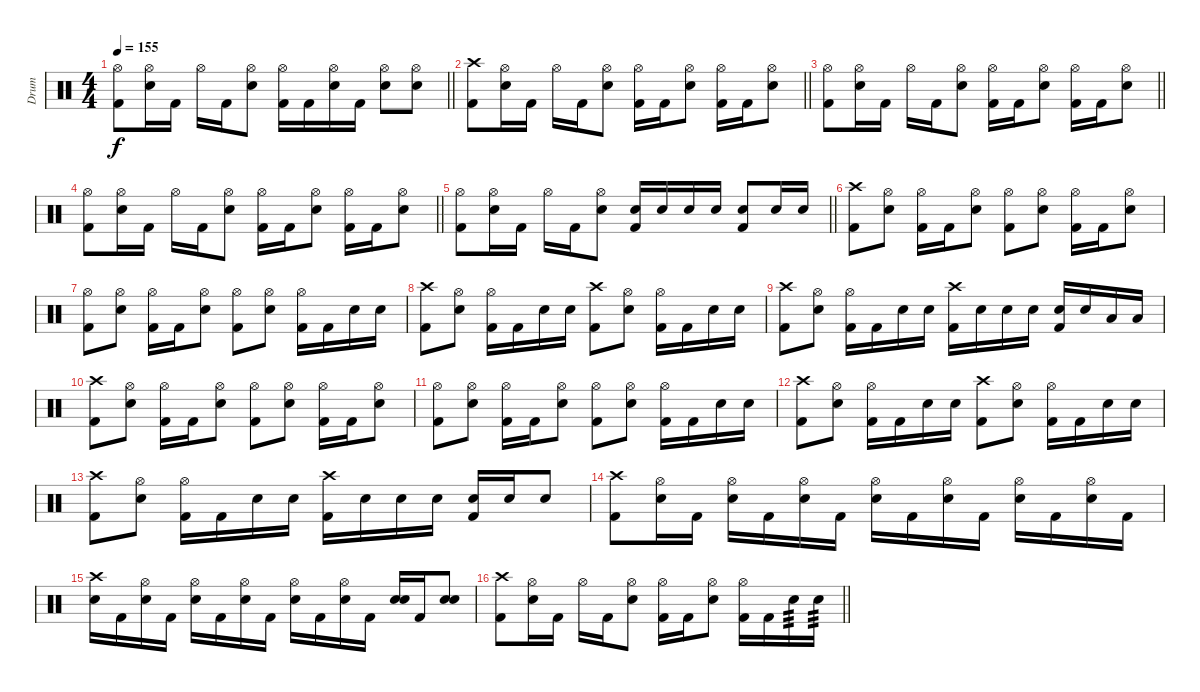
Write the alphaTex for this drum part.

\track ("Drum" "Drum") {solo instrument percussion}
\staff {score}
\articulation defaults
\ts (4 4)
\tempo 155
\clef neutral
\barLineRight lightlight
\ks c
("Hi-Hat (open)" "Kick (hit) 2").8{dy f} ("Hi-Hat (open)" "Electric Snare (hit)").16 "Kick (hit) 2".16 "Hi-Hat (open)".16 "Kick (hit) 2".16 ("Hi-Hat (open)" "Electric Snare (hit)").8 ("Kick (hit) 2" "Hi-Hat (open)").16 "Kick (hit) 2".16 ("Hi-Hat (open)" "Electric Snare (hit)").16 "Kick (hit) 2".16 ("Hi-Hat (open)" "Electric Snare (hit)").8 ("Electric Snare (hit)" "Hi-Hat (open)").8 |
\barLineRight lightlight
("Crash high (hit)" "Kick (hit) 2").8 ("Hi-Hat (open)" "Electric Snare (hit)").16 "Kick (hit) 2".16 "Hi-Hat (open)".16 "Kick (hit) 2".16 ("Hi-Hat (open)" "Electric Snare (hit)").8 ("Hi-Hat (open)" "Kick (hit) 2").16 "Kick (hit) 2".16 ("Hi-Hat (open)" "Electric Snare (hit)").8 ("Kick (hit) 2" "Hi-Hat (open)").16 "Kick (hit) 2".16 ("Hi-Hat (open)" "Electric Snare (hit)").8 |
\barLineRight lightlight
("Hi-Hat (open)" "Kick (hit) 2").8 ("Hi-Hat (open)" "Electric Snare (hit)").16 "Kick (hit) 2".16 "Hi-Hat (open)".16 "Kick (hit) 2".16 ("Hi-Hat (open)" "Electric Snare (hit)").8 ("Hi-Hat (open)" "Kick (hit) 2").16 "Kick (hit) 2".16 ("Hi-Hat (open)" "Electric Snare (hit)").8 ("Kick (hit) 2" "Hi-Hat (open)").16 "Kick (hit) 2".16 ("Hi-Hat (open)" "Electric Snare (hit)").8 |
\barLineRight lightlight
("Hi-Hat (open)" "Kick (hit) 2").8 ("Hi-Hat (open)" "Electric Snare (hit)").16 "Kick (hit) 2".16 "Hi-Hat (open)".16 "Kick (hit) 2".16 ("Hi-Hat (open)" "Electric Snare (hit)").8 ("Hi-Hat (open)" "Kick (hit) 2").16 "Kick (hit) 2".16 ("Hi-Hat (open)" "Electric Snare (hit)").8 ("Kick (hit) 2" "Hi-Hat (open)").16 "Kick (hit) 2".16 ("Hi-Hat (open)" "Electric Snare (hit)").8 |
\barLineRight lightlight
("Hi-Hat (open)" "Kick (hit) 2").8 ("Hi-Hat (open)" "Electric Snare (hit)").16 "Kick (hit) 2".16 "Hi-Hat (open)".16 "Kick (hit) 2".16 ("Hi-Hat (open)" "Electric Snare (hit)").8 ("Electric Snare (hit)" "Kick (hit) 2").16 "Electric Snare (hit)".16 "Electric Snare (hit)".16 "Electric Snare (hit)".16 ("Kick (hit) 2" "Electric Snare (hit)").8 "Electric Snare (hit)".16 "Electric Snare (hit)".16 |
("Crash high (hit)" "Kick (hit) 2").8 ("Hi-Hat (open)" "Electric Snare (hit)").8 ("Hi-Hat (open)" "Kick (hit) 2").16 "Kick (hit) 2".16 ("Hi-Hat (open)" "Electric Snare (hit)").8 ("Hi-Hat (open)" "Kick (hit) 2").8 ("Hi-Hat (open)" "Electric Snare (hit)").8 ("Kick (hit) 2" "Hi-Hat (open)").16 "Kick (hit) 2".16 ("Hi-Hat (open)" "Electric Snare (hit)").8 |
("Hi-Hat (open)" "Kick (hit) 2").8 ("Hi-Hat (open)" "Electric Snare (hit)").8 ("Hi-Hat (open)" "Kick (hit) 2").16 "Kick (hit) 2".16 ("Hi-Hat (open)" "Electric Snare (hit)").8 ("Hi-Hat (open)" "Kick (hit) 2").8 ("Hi-Hat (open)" "Electric Snare (hit)").8 ("Kick (hit) 2" "Hi-Hat (open)").16 "Kick (hit) 2".16 "Electric Snare (hit)".16 "Electric Snare (hit)".16 |
("Crash high (hit)" "Kick (hit) 2").8 ("Hi-Hat (open)" "Electric Snare (hit)").8 ("Kick (hit) 2" "Hi-Hat (open)").16 "Kick (hit) 2".16 "Electric Snare (hit)".16 "Electric Snare (hit)".16 ("Crash high (hit)" "Kick (hit) 2").8 ("Hi-Hat (open)" "Electric Snare (hit)").8 ("Kick (hit) 2" "Hi-Hat (open)").16 "Kick (hit) 2".16 "Electric Snare (hit)".16 "Electric Snare (hit)".16 |
("Crash high (hit)" "Kick (hit) 2").8 ("Hi-Hat (open)" "Electric Snare (hit)").8 ("Kick (hit) 2" "Hi-Hat (open)").16 "Kick (hit) 2".16 "Electric Snare (hit)".16 "Electric Snare (hit)".16 ("Crash high (hit)" "Kick (hit) 2").16 "Electric Snare (hit)".16 "Electric Snare (hit)".16 "Electric Snare (hit)".16 ("Electric Snare (hit)" "Kick (hit) 2").16 "Electric Snare (hit)".16 "Low Tom (hit)".16 "Low Tom (hit)".16 |
("Crash high (hit)" "Kick (hit) 2").8 ("Hi-Hat (open)" "Electric Snare (hit)").8 ("Hi-Hat (open)" "Kick (hit) 2").16 "Kick (hit) 2".16 ("Hi-Hat (open)" "Electric Snare (hit)").8 ("Hi-Hat (open)" "Kick (hit) 2").8 ("Hi-Hat (open)" "Electric Snare (hit)").8 ("Kick (hit) 2" "Hi-Hat (open)").16 "Kick (hit) 2".16 ("Hi-Hat (open)" "Electric Snare (hit)").8 |
("Hi-Hat (open)" "Kick (hit) 2").8 ("Hi-Hat (open)" "Electric Snare (hit)").8 ("Hi-Hat (open)" "Kick (hit) 2").16 "Kick (hit) 2".16 ("Hi-Hat (open)" "Electric Snare (hit)").8 ("Hi-Hat (open)" "Kick (hit) 2").8 ("Hi-Hat (open)" "Electric Snare (hit)").8 ("Kick (hit) 2" "Hi-Hat (open)").16 "Kick (hit) 2".16 "Electric Snare (hit)".16 "Electric Snare (hit)".16 |
("Crash high (hit)" "Kick (hit) 2").8 ("Hi-Hat (open)" "Electric Snare (hit)").8 ("Kick (hit) 2" "Hi-Hat (open)").16 "Kick (hit) 2".16 "Electric Snare (hit)".16 "Electric Snare (hit)".16 ("Crash high (hit)" "Kick (hit) 2").8 ("Hi-Hat (open)" "Electric Snare (hit)").8 ("Kick (hit) 2" "Hi-Hat (open)").16 "Kick (hit) 2".16 "Electric Snare (hit)".16 "Electric Snare (hit)".16 |
("Crash high (hit)" "Kick (hit) 2").8 ("Hi-Hat (open)" "Electric Snare (hit)").8 ("Kick (hit) 2" "Hi-Hat (open)").16 "Kick (hit) 2".16 "Electric Snare (hit)".16 "Electric Snare (hit)".16 ("Crash high (hit)" "Kick (hit) 2").16 "Electric Snare (hit)".16 "Electric Snare (hit)".16 "Electric Snare (hit)".16 ("Electric Snare (hit)" "Kick (hit) 2").16 "Electric Snare (hit)".16 "Electric Snare (hit)".8 |
("Kick (hit) 2" "Crash high (hit)").8 ("Hi-Hat (open)" "Electric Snare (hit)").16 "Kick (hit) 2".16 ("Electric Snare (hit)" "Hi-Hat (open)").16 "Kick (hit) 2".16 ("Hi-Hat (open)" "Electric Snare (hit)").16 "Kick (hit) 2".16 ("Electric Snare (hit)" "Hi-Hat (open)").16 "Kick (hit) 2".16 ("Hi-Hat (open)" "Electric Snare (hit)").16 "Kick (hit) 2".16 ("Electric Snare (hit)" "Hi-Hat (open)").16 "Kick (hit) 2".16 ("Hi-Hat (open)" "Electric Snare (hit)").16 "Kick (hit) 2".16 |
("Electric Snare (hit)" "Crash high (hit)").16 "Kick (hit) 2".16 ("Hi-Hat (open)" "Electric Snare (hit)").16 "Kick (hit) 2".16 ("Electric Snare (hit)" "Hi-Hat (open)").16 "Kick (hit) 2".16 ("Hi-Hat (open)" "Electric Snare (hit)").16 "Kick (hit) 2".16 ("Electric Snare (hit)" "Hi-Hat (open)").16 "Kick (hit) 2".16 ("Hi-Hat (open)" "Electric Snare (hit)").16 "Kick (hit) 2".16 ("Electric Snare (hit)" "Electric Snare (hit)").16 "Kick (hit) 2".16 ("Electric Snare (hit)" "Electric Snare (hit)").8 |
\barLineRight lightlight
("Crash high (hit)" "Kick (hit) 2").8 ("Hi-Hat (open)" "Electric Snare (hit)").16 "Kick (hit) 2".16 "Hi-Hat (open)".16 "Kick (hit) 2".16 ("Hi-Hat (open)" "Electric Snare (hit)").8 ("Kick (hit) 2" "Hi-Hat (open)").16 "Kick (hit) 2".16 ("Hi-Hat (open)" "Electric Snare (hit)").8 ("Kick (hit) 2" "Hi-Hat (open)").16 "Kick (hit) 2".16 "Electric Snare (hit)".16{tp 3} "Electric Snare (hit)".16{tp 3}
